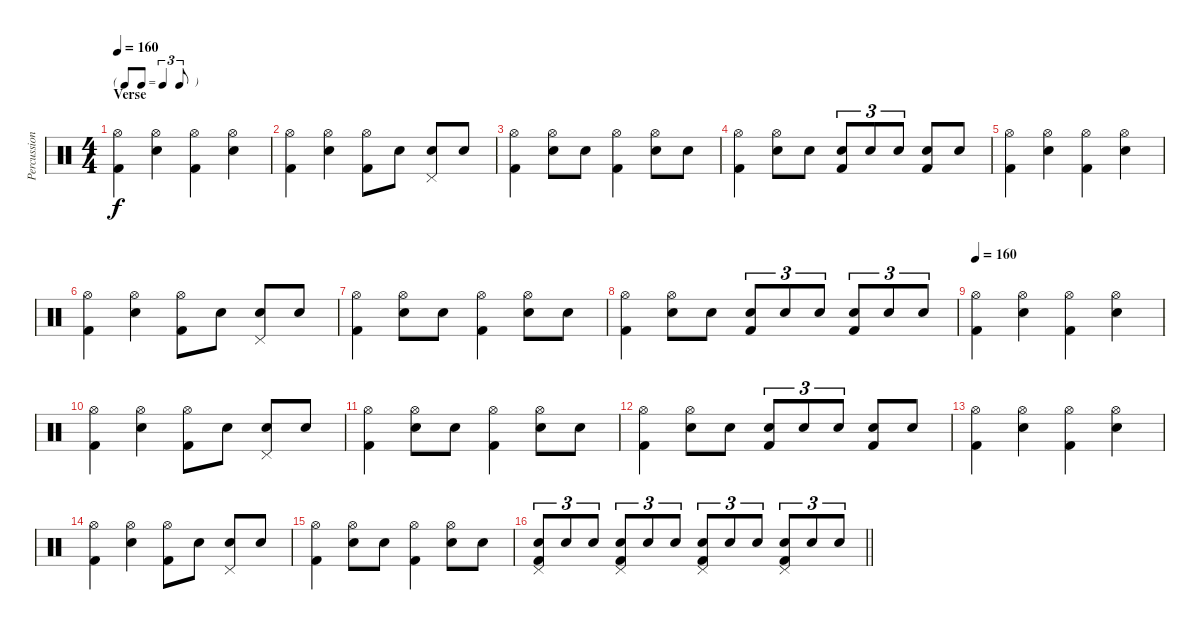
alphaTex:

\track ("Percussion" "Percussion") {instrument percussion}
\staff {score}
\articulation defaults
\ts (4 4)
\tf triplet8th
\section ("" "Verse")
\tempo 160
\clef neutral
\ks c
("Hi-Hat (open)" "Kick (hit) 2").4{dy f} ("Hi-Hat (open)" "Snare (hit) 2").4 ("Hi-Hat (open)" "Kick (hit) 2").4 ("Hi-Hat (open)" "Snare (hit) 2").4 |
("Hi-Hat (open)" "Kick (hit) 2").4 ("Hi-Hat (open)" "Snare (hit) 2").4 ("Hi-Hat (open)" "Kick (hit) 2").8 "Snare (hit) 2".8 ("Snare (hit) 2" "Pedal Hi-Hat (hit)").8 "Snare (hit) 2".8 |
("Hi-Hat (open)" "Kick (hit) 2").4 ("Hi-Hat (open)" "Snare (hit) 2").8 "Snare (hit) 2".8 ("Hi-Hat (open)" "Kick (hit) 2").4 ("Hi-Hat (open)" "Snare (hit) 2").8 "Snare (hit) 2".8 |
("Hi-Hat (open)" "Kick (hit) 2").4 ("Hi-Hat (open)" "Snare (hit) 2").8 "Snare (hit) 2".8 ("Snare (hit) 2" "Kick (hit) 2").8{tu (3 2)} "Snare (hit) 2".8{tu (3 2)} "Snare (hit) 2".8{tu (3 2)} ("Snare (hit) 2" "Kick (hit) 2").8 "Snare (hit) 2".8 |
("Hi-Hat (open)" "Kick (hit) 2").4 ("Hi-Hat (open)" "Snare (hit) 2").4 ("Hi-Hat (open)" "Kick (hit) 2").4 ("Hi-Hat (open)" "Snare (hit) 2").4 |
("Hi-Hat (open)" "Kick (hit) 2").4 ("Hi-Hat (open)" "Snare (hit) 2").4 ("Hi-Hat (open)" "Kick (hit) 2").8 "Snare (hit) 2".8 ("Snare (hit) 2" "Pedal Hi-Hat (hit)").8 "Snare (hit) 2".8 |
("Hi-Hat (open)" "Kick (hit) 2").4 ("Hi-Hat (open)" "Snare (hit) 2").8 "Snare (hit) 2".8 ("Hi-Hat (open)" "Kick (hit) 2").4 ("Hi-Hat (open)" "Snare (hit) 2").8 "Snare (hit) 2".8 |
("Hi-Hat (open)" "Kick (hit) 2").4 ("Hi-Hat (open)" "Snare (hit) 2").8 "Snare (hit) 2".8 ("Snare (hit) 2" "Kick (hit) 2").8{tu (3 2)} "Snare (hit) 2".8{tu (3 2)} "Snare (hit) 2".8{tu (3 2)} ("Snare (hit) 2" "Kick (hit) 2").8{tu (3 2)} "Snare (hit) 2".8{tu (3 2)} "Snare (hit) 2".8{tu (3 2)} |
\tempo 160
("Hi-Hat (open)" "Kick (hit) 2").4 ("Hi-Hat (open)" "Snare (hit) 2").4 ("Hi-Hat (open)" "Kick (hit) 2").4 ("Hi-Hat (open)" "Snare (hit) 2").4 |
("Hi-Hat (open)" "Kick (hit) 2").4 ("Hi-Hat (open)" "Snare (hit) 2").4 ("Hi-Hat (open)" "Kick (hit) 2").8 "Snare (hit) 2".8 ("Snare (hit) 2" "Pedal Hi-Hat (hit)").8 "Snare (hit) 2".8 |
("Hi-Hat (open)" "Kick (hit) 2").4 ("Hi-Hat (open)" "Snare (hit) 2").8 "Snare (hit) 2".8 ("Hi-Hat (open)" "Kick (hit) 2").4 ("Hi-Hat (open)" "Snare (hit) 2").8 "Snare (hit) 2".8 |
("Hi-Hat (open)" "Kick (hit) 2").4 ("Hi-Hat (open)" "Snare (hit) 2").8 "Snare (hit) 2".8 ("Snare (hit) 2" "Kick (hit) 2").8{tu (3 2)} "Snare (hit) 2".8{tu (3 2)} "Snare (hit) 2".8{tu (3 2)} ("Snare (hit) 2" "Kick (hit) 2").8 "Snare (hit) 2".8 |
("Hi-Hat (open)" "Kick (hit) 2").4 ("Hi-Hat (open)" "Snare (hit) 2").4 ("Hi-Hat (open)" "Kick (hit) 2").4 ("Hi-Hat (open)" "Snare (hit) 2").4 |
("Hi-Hat (open)" "Kick (hit) 2").4 ("Hi-Hat (open)" "Snare (hit) 2").4 ("Hi-Hat (open)" "Kick (hit) 2").8 "Snare (hit) 2".8 ("Snare (hit) 2" "Pedal Hi-Hat (hit)").8 "Snare (hit) 2".8 |
("Hi-Hat (open)" "Kick (hit) 2").4 ("Hi-Hat (open)" "Snare (hit) 2").8 "Snare (hit) 2".8 ("Hi-Hat (open)" "Kick (hit) 2").4 ("Hi-Hat (open)" "Snare (hit) 2").8 "Snare (hit) 2".8 |
\barLineRight lightlight
("Snare (hit) 2" "Pedal Hi-Hat (hit)" "Kick (hit) 2").8{tu (3 2)} "Snare (hit) 2".8{tu (3 2)} "Snare (hit) 2".8{tu (3 2)} ("Snare (hit) 2" "Pedal Hi-Hat (hit)" "Kick (hit) 2").8{tu (3 2)} "Snare (hit) 2".8{tu (3 2)} "Snare (hit) 2".8{tu (3 2)} ("Snare (hit) 2" "Pedal Hi-Hat (hit)" "Kick (hit) 2").8{tu (3 2)} "Snare (hit) 2".8{tu (3 2)} "Snare (hit) 2".8{tu (3 2)} ("Snare (hit) 2" "Pedal Hi-Hat (hit)" "Kick (hit) 2").8{tu (3 2)} "Snare (hit) 2".8{tu (3 2)} "Snare (hit) 2".8{tu (3 2)}
